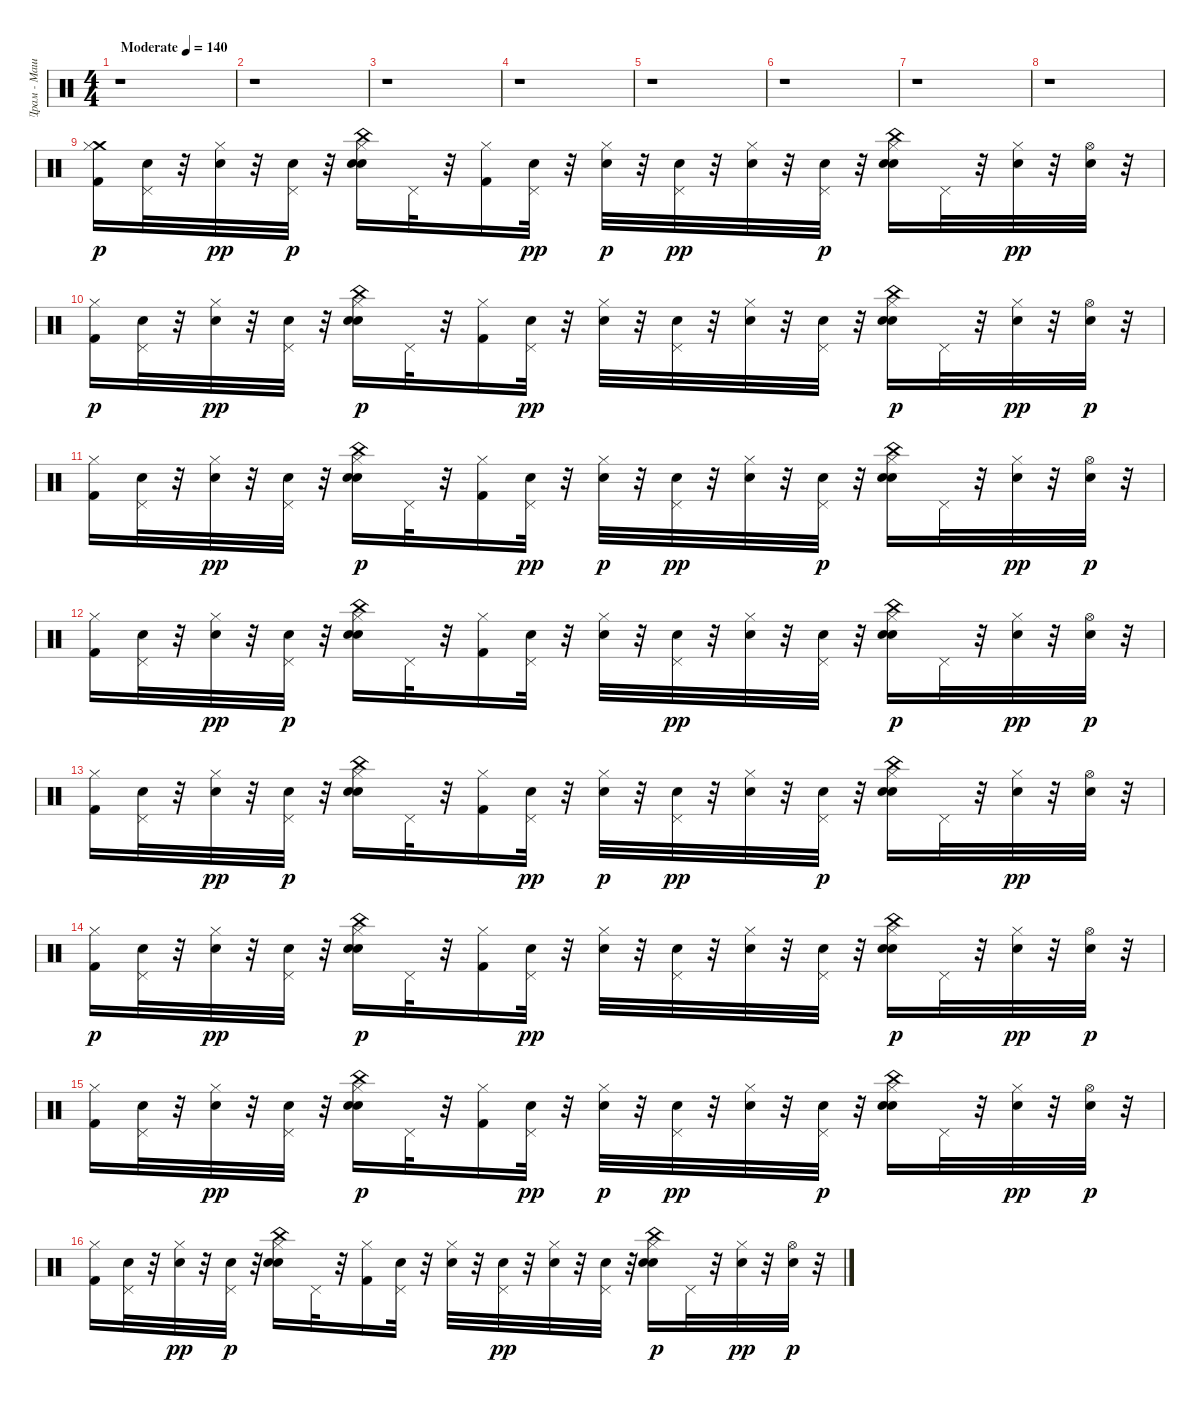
\track ("Драм - Машина" "Драм - Маш") {instrument percussion}
\staff {score}
\articulation defaults
\ts (4 4)
\tempo (140 "Moderate")
\clef neutral
\ks c
r.1{dy p} |
r.1 |
r.1 |
r.1 |
r.1 |
r.1 |
r.1 |
r.1 |
("Crash medium (hit)" "Kick (hit) 2" "Hi-Hat (closed)").16 ("Snare (hit) 2" "Pedal Hi-Hat (hit)").32 r.32 ("Hi-Hat (closed)" "Snare (hit) 2").32{dy pp} r.32 ("Snare (hit) 2" "Pedal Hi-Hat (hit)").32{dy p} r.32 ("Electric Snare (hit)" "China (hit)" "Hand Clap (hit)" "Hi-Hat (closed)").16 "Pedal Hi-Hat (hit)".32 r.32 ("Hi-Hat (closed)" "Kick (hit) 2").16 ("Pedal Hi-Hat (hit)" "Snare (hit) 2").32{dy pp} r.32 ("Snare (hit) 2" "Hi-Hat (closed)").32{dy p} r.32 ("Pedal Hi-Hat (hit)" "Snare (hit) 2").32{dy pp} r.32 ("Hi-Hat (closed)" "Snare (hit) 2").32 r.32 ("Snare (hit) 2" "Pedal Hi-Hat (hit)").32{dy p} r.32 ("Electric Snare (hit)" "Hand Clap (hit)" "China (hit)" "Hi-Hat (closed)").16 "Pedal Hi-Hat (hit)".32 r.32 ("Hi-Hat (closed)" "Snare (hit) 2").32{dy pp} r.32 ("Hi-Hat (open)" "Snare (hit) 2").32 r.32 |
("Hi-Hat (closed)" "Kick (hit) 2").16{dy p} ("Snare (hit) 2" "Pedal Hi-Hat (hit)").32 r.32 ("Hi-Hat (closed)" "Snare (hit) 2").32{dy pp} r.32 ("Pedal Hi-Hat (hit)" "Snare (hit) 2").32 r.32 ("Hi-Hat (closed)" "Electric Snare (hit)" "Hand Clap (hit)" "China (hit)").16{dy p} "Pedal Hi-Hat (hit)".32 r.32 ("Hi-Hat (closed)" "Kick (hit) 2").16 ("Pedal Hi-Hat (hit)" "Snare (hit) 2").32{dy pp} r.32 ("Hi-Hat (closed)" "Snare (hit) 2").32 r.32 ("Pedal Hi-Hat (hit)" "Snare (hit) 2").32 r.32 ("Hi-Hat (closed)" "Snare (hit) 2").32 r.32 ("Pedal Hi-Hat (hit)" "Snare (hit) 2").32 r.32 ("Hi-Hat (closed)" "Electric Snare (hit)" "Hand Clap (hit)" "China (hit)").16{dy p} "Pedal Hi-Hat (hit)".32 r.32 ("Hi-Hat (closed)" "Snare (hit) 2").32{dy pp} r.32 ("Snare (hit) 2" "Hi-Hat (open)").32{dy p} r.32 |
("Kick (hit) 2" "Hi-Hat (closed)").16 ("Snare (hit) 2" "Pedal Hi-Hat (hit)").32 r.32 ("Hi-Hat (closed)" "Snare (hit) 2").32{dy pp} r.32 ("Pedal Hi-Hat (hit)" "Snare (hit) 2").32 r.32 ("Hi-Hat (closed)" "Electric Snare (hit)" "Hand Clap (hit)" "China (hit)").16{dy p} "Pedal Hi-Hat (hit)".32 r.32 ("Hi-Hat (closed)" "Kick (hit) 2").16 ("Pedal Hi-Hat (hit)" "Snare (hit) 2").32{dy pp} r.32 ("Snare (hit) 2" "Hi-Hat (closed)").32{dy p} r.32 ("Pedal Hi-Hat (hit)" "Snare (hit) 2").32{dy pp} r.32 ("Hi-Hat (closed)" "Snare (hit) 2").32 r.32 ("Snare (hit) 2" "Pedal Hi-Hat (hit)").32{dy p} r.32 ("Electric Snare (hit)" "China (hit)" "Hand Clap (hit)" "Hi-Hat (closed)").16 "Pedal Hi-Hat (hit)".32 r.32 ("Hi-Hat (closed)" "Snare (hit) 2").32{dy pp} r.32 ("Snare (hit) 2" "Hi-Hat (open)").32{dy p} r.32 |
("Kick (hit) 2" "Hi-Hat (closed)").16 ("Snare (hit) 2" "Pedal Hi-Hat (hit)").32 r.32 ("Hi-Hat (closed)" "Snare (hit) 2").32{dy pp} r.32 ("Snare (hit) 2" "Pedal Hi-Hat (hit)").32{dy p} r.32 ("Electric Snare (hit)" "Hand Clap (hit)" "China (hit)" "Hi-Hat (closed)").16 "Pedal Hi-Hat (hit)".32 r.32 ("Hi-Hat (closed)" "Kick (hit) 2").16 ("Snare (hit) 2" "Pedal Hi-Hat (hit)").32 r.32 ("Snare (hit) 2" "Hi-Hat (closed)").32 r.32 ("Pedal Hi-Hat (hit)" "Snare (hit) 2").32{dy pp} r.32 ("Hi-Hat (closed)" "Snare (hit) 2").32 r.32 ("Pedal Hi-Hat (hit)" "Snare (hit) 2").32 r.32 ("Hi-Hat (closed)" "Electric Snare (hit)" "Hand Clap (hit)" "China (hit)").16{dy p} "Pedal Hi-Hat (hit)".32 r.32 ("Hi-Hat (closed)" "Snare (hit) 2").32{dy pp} r.32 ("Snare (hit) 2" "Hi-Hat (open)").32{dy p} r.32 |
("Kick (hit) 2" "Hi-Hat (closed)").16 ("Snare (hit) 2" "Pedal Hi-Hat (hit)").32 r.32 ("Hi-Hat (closed)" "Snare (hit) 2").32{dy pp} r.32 ("Snare (hit) 2" "Pedal Hi-Hat (hit)").32{dy p} r.32 ("Electric Snare (hit)" "China (hit)" "Hand Clap (hit)" "Hi-Hat (closed)").16 "Pedal Hi-Hat (hit)".32 r.32 ("Hi-Hat (closed)" "Kick (hit) 2").16 ("Pedal Hi-Hat (hit)" "Snare (hit) 2").32{dy pp} r.32 ("Snare (hit) 2" "Hi-Hat (closed)").32{dy p} r.32 ("Pedal Hi-Hat (hit)" "Snare (hit) 2").32{dy pp} r.32 ("Hi-Hat (closed)" "Snare (hit) 2").32 r.32 ("Snare (hit) 2" "Pedal Hi-Hat (hit)").32{dy p} r.32 ("Electric Snare (hit)" "Hand Clap (hit)" "China (hit)" "Hi-Hat (closed)").16 "Pedal Hi-Hat (hit)".32 r.32 ("Hi-Hat (closed)" "Snare (hit) 2").32{dy pp} r.32 ("Hi-Hat (open)" "Snare (hit) 2").32 r.32 |
("Hi-Hat (closed)" "Kick (hit) 2").16{dy p} ("Snare (hit) 2" "Pedal Hi-Hat (hit)").32 r.32 ("Hi-Hat (closed)" "Snare (hit) 2").32{dy pp} r.32 ("Pedal Hi-Hat (hit)" "Snare (hit) 2").32 r.32 ("Hi-Hat (closed)" "Electric Snare (hit)" "Hand Clap (hit)" "China (hit)").16{dy p} "Pedal Hi-Hat (hit)".32 r.32 ("Hi-Hat (closed)" "Kick (hit) 2").16 ("Pedal Hi-Hat (hit)" "Snare (hit) 2").32{dy pp} r.32 ("Hi-Hat (closed)" "Snare (hit) 2").32 r.32 ("Pedal Hi-Hat (hit)" "Snare (hit) 2").32 r.32 ("Hi-Hat (closed)" "Snare (hit) 2").32 r.32 ("Pedal Hi-Hat (hit)" "Snare (hit) 2").32 r.32 ("Hi-Hat (closed)" "Electric Snare (hit)" "Hand Clap (hit)" "China (hit)").16{dy p} "Pedal Hi-Hat (hit)".32 r.32 ("Hi-Hat (closed)" "Snare (hit) 2").32{dy pp} r.32 ("Snare (hit) 2" "Hi-Hat (open)").32{dy p} r.32 |
("Kick (hit) 2" "Hi-Hat (closed)").16 ("Snare (hit) 2" "Pedal Hi-Hat (hit)").32 r.32 ("Hi-Hat (closed)" "Snare (hit) 2").32{dy pp} r.32 ("Pedal Hi-Hat (hit)" "Snare (hit) 2").32 r.32 ("Hi-Hat (closed)" "Electric Snare (hit)" "Hand Clap (hit)" "China (hit)").16{dy p} "Pedal Hi-Hat (hit)".32 r.32 ("Hi-Hat (closed)" "Kick (hit) 2").16 ("Pedal Hi-Hat (hit)" "Snare (hit) 2").32{dy pp} r.32 ("Snare (hit) 2" "Hi-Hat (closed)").32{dy p} r.32 ("Pedal Hi-Hat (hit)" "Snare (hit) 2").32{dy pp} r.32 ("Hi-Hat (closed)" "Snare (hit) 2").32 r.32 ("Snare (hit) 2" "Pedal Hi-Hat (hit)").32{dy p} r.32 ("Electric Snare (hit)" "China (hit)" "Hand Clap (hit)" "Hi-Hat (closed)").16 "Pedal Hi-Hat (hit)".32 r.32 ("Hi-Hat (closed)" "Snare (hit) 2").32{dy pp} r.32 ("Snare (hit) 2" "Hi-Hat (open)").32{dy p} r.32 |
("Kick (hit) 2" "Hi-Hat (closed)").16 ("Snare (hit) 2" "Pedal Hi-Hat (hit)").32 r.32 ("Hi-Hat (closed)" "Snare (hit) 2").32{dy pp} r.32 ("Snare (hit) 2" "Pedal Hi-Hat (hit)").32{dy p} r.32 ("Electric Snare (hit)" "Hand Clap (hit)" "China (hit)" "Hi-Hat (closed)").16 "Pedal Hi-Hat (hit)".32 r.32 ("Hi-Hat (closed)" "Kick (hit) 2").16 ("Snare (hit) 2" "Pedal Hi-Hat (hit)").32 r.32 ("Snare (hit) 2" "Hi-Hat (closed)").32 r.32 ("Pedal Hi-Hat (hit)" "Snare (hit) 2").32{dy pp} r.32 ("Hi-Hat (closed)" "Snare (hit) 2").32 r.32 ("Pedal Hi-Hat (hit)" "Snare (hit) 2").32 r.32 ("Hi-Hat (closed)" "Electric Snare (hit)" "Hand Clap (hit)" "China (hit)").16{dy p} "Pedal Hi-Hat (hit)".32 r.32 ("Hi-Hat (closed)" "Snare (hit) 2").32{dy pp} r.32 ("Snare (hit) 2" "Hi-Hat (open)").32{dy p} r.32
